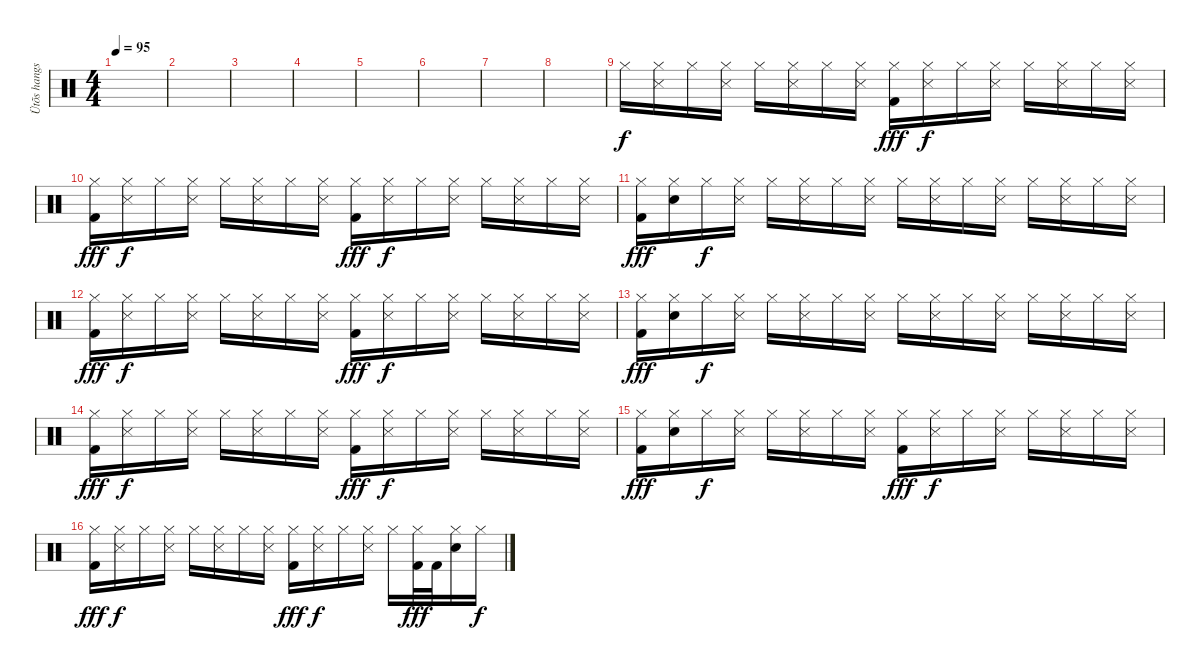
\track ("Ütõs hangszer" "Ütõs hangs") {instrument percussion}
\staff {score}
\articulation defaults
\ts (4 4)
\tempo 95
\clef neutral
\ks c
|
|
|
|
|
|
|
|
"Hi-Hat (closed)".16 ("Hi-Hat (closed)" "Snare (side stick) 3").16 "Hi-Hat (closed)".16 ("Hi-Hat (closed)" "Snare (side stick) 3").16 "Hi-Hat (closed)".16 ("Hi-Hat (closed)" "Snare (side stick) 3").16 "Hi-Hat (closed)".16 ("Hi-Hat (closed)" "Snare (side stick) 3").16 ("Hi-Hat (closed)" "Kick (hit) 2").16{dy fff} ("Hi-Hat (closed)" "Snare (side stick) 3").16{dy f} "Hi-Hat (closed)".16 ("Hi-Hat (closed)" "Snare (side stick) 3").16 "Hi-Hat (closed)".16 ("Hi-Hat (closed)" "Snare (side stick) 3").16 "Hi-Hat (closed)".16 ("Hi-Hat (closed)" "Snare (side stick) 3").16 |
("Hi-Hat (closed)" "Kick (hit) 2").16{dy fff} ("Hi-Hat (closed)" "Snare (side stick) 3").16{dy f} "Hi-Hat (closed)".16 ("Hi-Hat (closed)" "Snare (side stick) 3").16 "Hi-Hat (closed)".16 ("Hi-Hat (closed)" "Snare (side stick) 3").16 "Hi-Hat (closed)".16 ("Hi-Hat (closed)" "Snare (side stick) 3").16 ("Hi-Hat (closed)" "Kick (hit) 2").16{dy fff} ("Hi-Hat (closed)" "Snare (side stick) 3").16{dy f} "Hi-Hat (closed)".16 ("Hi-Hat (closed)" "Snare (side stick) 3").16 "Hi-Hat (closed)".16 ("Hi-Hat (closed)" "Snare (side stick) 3").16 "Hi-Hat (closed)".16 ("Hi-Hat (closed)" "Snare (side stick) 3").16 |
("Hi-Hat (closed)" "Kick (hit) 2").16{dy fff} ("Hi-Hat (closed)" "Snare (hit) 2").16 "Hi-Hat (closed)".16{dy f} ("Hi-Hat (closed)" "Snare (side stick) 3").16 "Hi-Hat (closed)".16 ("Hi-Hat (closed)" "Snare (side stick) 3").16 "Hi-Hat (closed)".16 ("Hi-Hat (closed)" "Snare (side stick) 3").16 "Hi-Hat (closed)".16 ("Hi-Hat (closed)" "Snare (side stick) 3").16 "Hi-Hat (closed)".16 ("Hi-Hat (closed)" "Snare (side stick) 3").16 "Hi-Hat (closed)".16 ("Hi-Hat (closed)" "Snare (side stick) 3").16 "Hi-Hat (closed)".16 ("Hi-Hat (closed)" "Snare (side stick) 3").16 |
("Hi-Hat (closed)" "Kick (hit) 2").16{dy fff} ("Hi-Hat (closed)" "Snare (side stick) 3").16{dy f} "Hi-Hat (closed)".16 ("Hi-Hat (closed)" "Snare (side stick) 3").16 "Hi-Hat (closed)".16 ("Hi-Hat (closed)" "Snare (side stick) 3").16 "Hi-Hat (closed)".16 ("Hi-Hat (closed)" "Snare (side stick) 3").16 ("Hi-Hat (closed)" "Kick (hit) 2").16{dy fff} ("Hi-Hat (closed)" "Snare (side stick) 3").16{dy f} "Hi-Hat (closed)".16 ("Hi-Hat (closed)" "Snare (side stick) 3").16 "Hi-Hat (closed)".16 ("Hi-Hat (closed)" "Snare (side stick) 3").16 "Hi-Hat (closed)".16 ("Hi-Hat (closed)" "Snare (side stick) 3").16 |
("Hi-Hat (closed)" "Kick (hit) 2").16{dy fff} ("Hi-Hat (closed)" "Snare (hit) 2").16 "Hi-Hat (closed)".16{dy f} ("Hi-Hat (closed)" "Snare (side stick) 3").16 "Hi-Hat (closed)".16 ("Hi-Hat (closed)" "Snare (side stick) 3").16 "Hi-Hat (closed)".16 ("Hi-Hat (closed)" "Snare (side stick) 3").16 "Hi-Hat (closed)".16 ("Hi-Hat (closed)" "Snare (side stick) 3").16 "Hi-Hat (closed)".16 ("Hi-Hat (closed)" "Snare (side stick) 3").16 "Hi-Hat (closed)".16 ("Hi-Hat (closed)" "Snare (side stick) 3").16 "Hi-Hat (closed)".16 ("Hi-Hat (closed)" "Snare (side stick) 3").16 |
("Hi-Hat (closed)" "Kick (hit) 2").16{dy fff} ("Hi-Hat (closed)" "Snare (side stick) 3").16{dy f} "Hi-Hat (closed)".16 ("Hi-Hat (closed)" "Snare (side stick) 3").16 "Hi-Hat (closed)".16 ("Hi-Hat (closed)" "Snare (side stick) 3").16 "Hi-Hat (closed)".16 ("Hi-Hat (closed)" "Snare (side stick) 3").16 ("Hi-Hat (closed)" "Kick (hit) 2").16{dy fff} ("Hi-Hat (closed)" "Snare (side stick) 3").16{dy f} "Hi-Hat (closed)".16 ("Hi-Hat (closed)" "Snare (side stick) 3").16 "Hi-Hat (closed)".16 ("Hi-Hat (closed)" "Snare (side stick) 3").16 "Hi-Hat (closed)".16 ("Hi-Hat (closed)" "Snare (side stick) 3").16 |
("Hi-Hat (closed)" "Kick (hit) 2").16{dy fff} ("Hi-Hat (closed)" "Snare (hit) 2").16 "Hi-Hat (closed)".16{dy f} ("Hi-Hat (closed)" "Snare (side stick) 3").16 "Hi-Hat (closed)".16 ("Hi-Hat (closed)" "Snare (side stick) 3").16 "Hi-Hat (closed)".16 ("Hi-Hat (closed)" "Snare (side stick) 3").16 ("Hi-Hat (closed)" "Kick (hit) 2").16{dy fff} ("Hi-Hat (closed)" "Snare (side stick) 3").16{dy f} "Hi-Hat (closed)".16 ("Hi-Hat (closed)" "Snare (side stick) 3").16 "Hi-Hat (closed)".16 ("Hi-Hat (closed)" "Snare (side stick) 3").16 "Hi-Hat (closed)".16 ("Hi-Hat (closed)" "Snare (side stick) 3").16 |
("Hi-Hat (closed)" "Kick (hit) 2").16{dy fff} ("Hi-Hat (closed)" "Snare (side stick) 3").16{dy f} "Hi-Hat (closed)".16 ("Hi-Hat (closed)" "Snare (side stick) 3").16 "Hi-Hat (closed)".16 ("Hi-Hat (closed)" "Snare (side stick) 3").16 "Hi-Hat (closed)".16 ("Hi-Hat (closed)" "Snare (side stick) 3").16 ("Hi-Hat (closed)" "Kick (hit) 2").16{dy fff} ("Hi-Hat (closed)" "Snare (side stick) 3").16{dy f} "Hi-Hat (closed)".16 ("Hi-Hat (closed)" "Snare (side stick) 3").16 "Hi-Hat (closed)".16 ("Hi-Hat (closed)" "Kick (hit) 2").32{dy fff} "Kick (hit) 2".32 ("Hi-Hat (closed)" "Snare (hit) 2").16 "Hi-Hat (closed)".16{dy f}
